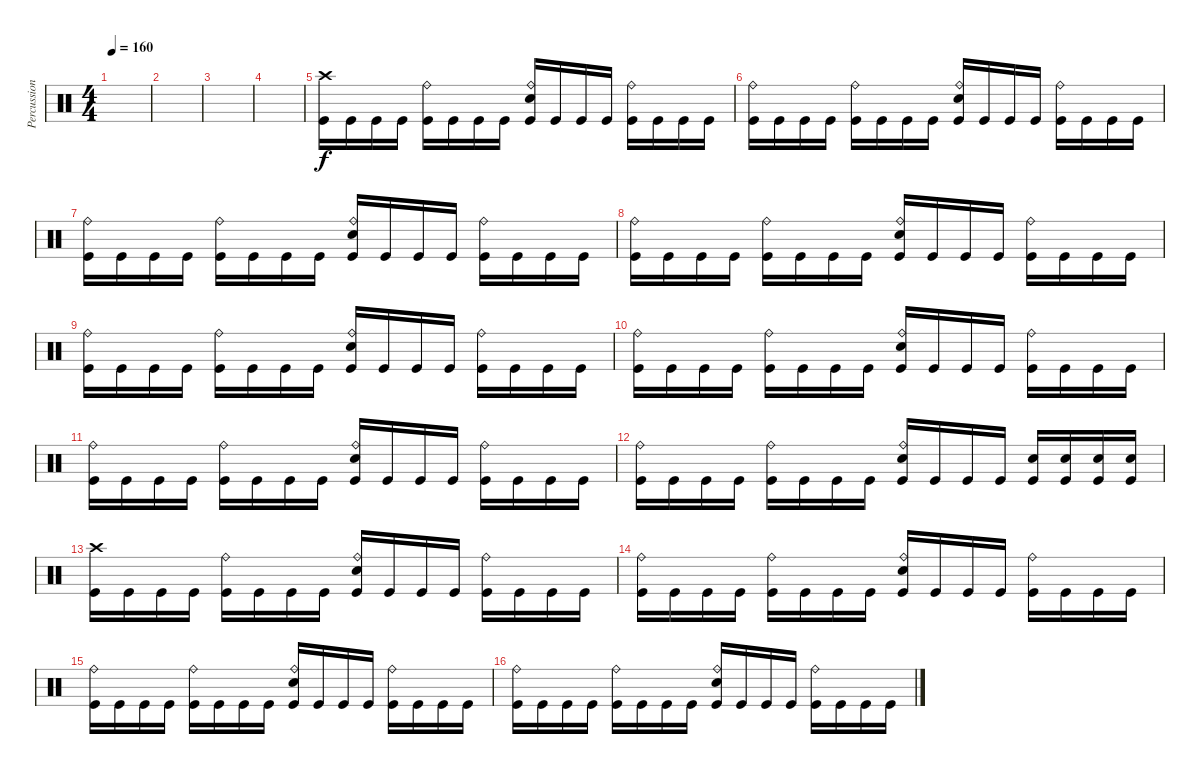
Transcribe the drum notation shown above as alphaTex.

\track ("Percussioni" "Percussion") {instrument percussion}
\staff {score}
\articulation defaults
\ts (4 4)
\tempo 160
\clef neutral
\ks c
|
|
|
|
("Crash high (hit)" "Kick (hit)").16 "Kick (hit)".16 "Kick (hit)".16 "Kick (hit)".16 ("Ride (bell)" "Kick (hit)").16 "Kick (hit)".16 "Kick (hit)".16 "Kick (hit)".16 ("Snare (hit) 2" "Ride (bell)" "Kick (hit)").16 "Kick (hit)".16 "Kick (hit)".16 "Kick (hit)".16 ("Ride (bell)" "Kick (hit)").16 "Kick (hit)".16 "Kick (hit)".16 "Kick (hit)".16 |
("Ride (bell)" "Kick (hit)").16 "Kick (hit)".16 "Kick (hit)".16 "Kick (hit)".16 ("Ride (bell)" "Kick (hit)").16 "Kick (hit)".16 "Kick (hit)".16 "Kick (hit)".16 ("Snare (hit) 2" "Ride (bell)" "Kick (hit)").16 "Kick (hit)".16 "Kick (hit)".16 "Kick (hit)".16 ("Ride (bell)" "Kick (hit)").16 "Kick (hit)".16 "Kick (hit)".16 "Kick (hit)".16 |
("Ride (bell)" "Kick (hit)").16 "Kick (hit)".16 "Kick (hit)".16 "Kick (hit)".16 ("Ride (bell)" "Kick (hit)").16 "Kick (hit)".16 "Kick (hit)".16 "Kick (hit)".16 ("Snare (hit) 2" "Ride (bell)" "Kick (hit)").16 "Kick (hit)".16 "Kick (hit)".16 "Kick (hit)".16 ("Ride (bell)" "Kick (hit)").16 "Kick (hit)".16 "Kick (hit)".16 "Kick (hit)".16 |
("Ride (bell)" "Kick (hit)").16 "Kick (hit)".16 "Kick (hit)".16 "Kick (hit)".16 ("Ride (bell)" "Kick (hit)").16 "Kick (hit)".16 "Kick (hit)".16 "Kick (hit)".16 ("Snare (hit) 2" "Ride (bell)" "Kick (hit)").16 "Kick (hit)".16 "Kick (hit)".16 "Kick (hit)".16 ("Ride (bell)" "Kick (hit)").16 "Kick (hit)".16 "Kick (hit)".16 "Kick (hit)".16 |
("Ride (bell)" "Kick (hit)").16 "Kick (hit)".16 "Kick (hit)".16 "Kick (hit)".16 ("Ride (bell)" "Kick (hit)").16 "Kick (hit)".16 "Kick (hit)".16 "Kick (hit)".16 ("Snare (hit) 2" "Ride (bell)" "Kick (hit)").16 "Kick (hit)".16 "Kick (hit)".16 "Kick (hit)".16 ("Ride (bell)" "Kick (hit)").16 "Kick (hit)".16 "Kick (hit)".16 "Kick (hit)".16 |
("Ride (bell)" "Kick (hit)").16 "Kick (hit)".16 "Kick (hit)".16 "Kick (hit)".16 ("Ride (bell)" "Kick (hit)").16 "Kick (hit)".16 "Kick (hit)".16 "Kick (hit)".16 ("Snare (hit) 2" "Ride (bell)" "Kick (hit)").16 "Kick (hit)".16 "Kick (hit)".16 "Kick (hit)".16 ("Ride (bell)" "Kick (hit)").16 "Kick (hit)".16 "Kick (hit)".16 "Kick (hit)".16 |
("Ride (bell)" "Kick (hit)").16 "Kick (hit)".16 "Kick (hit)".16 "Kick (hit)".16 ("Ride (bell)" "Kick (hit)").16 "Kick (hit)".16 "Kick (hit)".16 "Kick (hit)".16 ("Snare (hit) 2" "Ride (bell)" "Kick (hit)").16 "Kick (hit)".16 "Kick (hit)".16 "Kick (hit)".16 ("Ride (bell)" "Kick (hit)").16 "Kick (hit)".16 "Kick (hit)".16 "Kick (hit)".16 |
("Ride (bell)" "Kick (hit)").16 "Kick (hit)".16 "Kick (hit)".16 "Kick (hit)".16 ("Ride (bell)" "Kick (hit)").16 "Kick (hit)".16 "Kick (hit)".16 "Kick (hit)".16 ("Snare (hit) 2" "Ride (bell)" "Kick (hit)").16 "Kick (hit)".16 "Kick (hit)".16 "Kick (hit)".16 ("Snare (hit) 2" "Kick (hit)").16 ("Snare (hit) 2" "Kick (hit)").16 ("Snare (hit) 2" "Kick (hit)").16 ("Snare (hit) 2" "Kick (hit)").16 |
("Crash high (hit)" "Kick (hit)").16 "Kick (hit)".16 "Kick (hit)".16 "Kick (hit)".16 ("Ride (bell)" "Kick (hit)").16 "Kick (hit)".16 "Kick (hit)".16 "Kick (hit)".16 ("Snare (hit) 2" "Ride (bell)" "Kick (hit)").16 "Kick (hit)".16 "Kick (hit)".16 "Kick (hit)".16 ("Ride (bell)" "Kick (hit)").16 "Kick (hit)".16 "Kick (hit)".16 "Kick (hit)".16 |
("Ride (bell)" "Kick (hit)").16 "Kick (hit)".16 "Kick (hit)".16 "Kick (hit)".16 ("Ride (bell)" "Kick (hit)").16 "Kick (hit)".16 "Kick (hit)".16 "Kick (hit)".16 ("Snare (hit) 2" "Ride (bell)" "Kick (hit)").16 "Kick (hit)".16 "Kick (hit)".16 "Kick (hit)".16 ("Ride (bell)" "Kick (hit)").16 "Kick (hit)".16 "Kick (hit)".16 "Kick (hit)".16 |
("Ride (bell)" "Kick (hit)").16 "Kick (hit)".16 "Kick (hit)".16 "Kick (hit)".16 ("Ride (bell)" "Kick (hit)").16 "Kick (hit)".16 "Kick (hit)".16 "Kick (hit)".16 ("Snare (hit) 2" "Ride (bell)" "Kick (hit)").16 "Kick (hit)".16 "Kick (hit)".16 "Kick (hit)".16 ("Ride (bell)" "Kick (hit)").16 "Kick (hit)".16 "Kick (hit)".16 "Kick (hit)".16 |
("Ride (bell)" "Kick (hit)").16 "Kick (hit)".16 "Kick (hit)".16 "Kick (hit)".16 ("Ride (bell)" "Kick (hit)").16 "Kick (hit)".16 "Kick (hit)".16 "Kick (hit)".16 ("Snare (hit) 2" "Ride (bell)" "Kick (hit)").16 "Kick (hit)".16 "Kick (hit)".16 "Kick (hit)".16 ("Ride (bell)" "Kick (hit)").16 "Kick (hit)".16 "Kick (hit)".16 "Kick (hit)".16
